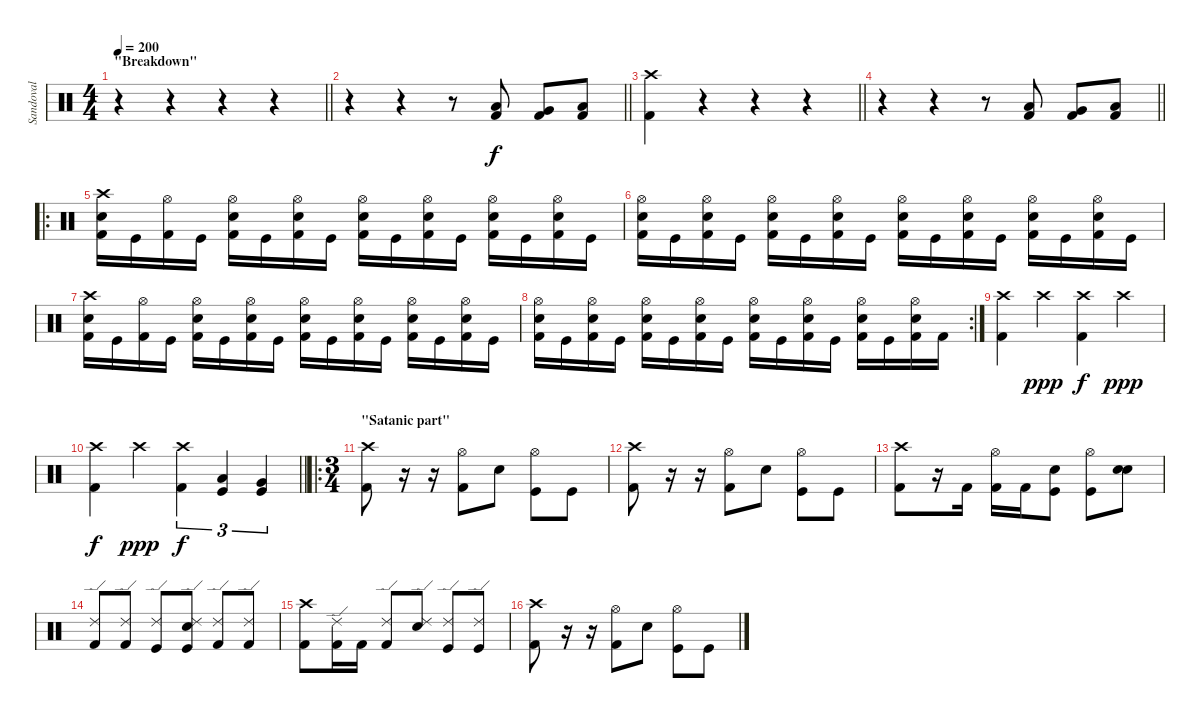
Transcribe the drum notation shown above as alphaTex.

\track ("Sandoval" "Sandoval") {instrument percussion}
\staff {score}
\articulation defaults
\ts (4 4)
\section ("" "\"Breakdown\"")
\tempo 200
\clef neutral
\barLineRight lightlight
\ks c
r.4{dy f} r.4 r.4 r.4 |
\barLineRight lightlight
r.4 r.4 r.8 ("Low Tom (hit)" "Kick (hit) 2").8 ("Very Low Tom (hit)" "Kick (hit) 2").8 ("Low Floor Tom (hit)" "Kick (hit) 2").8 |
\barLineRight lightlight
("Crash high (hit)" "Kick (hit) 2").4 r.4 r.4 r.4 |
\barLineRight lightlight
r.4 r.4 r.8 ("Low Tom (hit)" "Kick (hit) 2").8 ("Very Low Tom (hit)" "Kick (hit) 2").8 ("Low Floor Tom (hit)" "Kick (hit) 2").8 |
\ro
("Crash high (hit)" "Electric Snare (hit)" "Kick (hit) 2").16 "Kick (hit)".16 ("Hi-Hat (open)" "Kick (hit) 2").16 "Kick (hit)".16 ("Hi-Hat (open)" "Electric Snare (hit)" "Kick (hit) 2").16 "Kick (hit)".16 ("Hi-Hat (open)" "Electric Snare (hit)" "Kick (hit) 2").16 "Kick (hit)".16 ("Hi-Hat (open)" "Electric Snare (hit)" "Kick (hit) 2").16 "Kick (hit)".16 ("Hi-Hat (open)" "Electric Snare (hit)" "Kick (hit) 2").16 "Kick (hit)".16 ("Hi-Hat (open)" "Electric Snare (hit)" "Kick (hit) 2").16 "Kick (hit)".16 ("Hi-Hat (open)" "Electric Snare (hit)" "Kick (hit) 2").16 "Kick (hit)".16 |
("Hi-Hat (open)" "Electric Snare (hit)" "Kick (hit) 2").16 "Kick (hit)".16 ("Hi-Hat (open)" "Electric Snare (hit)" "Kick (hit) 2").16 "Kick (hit)".16 ("Hi-Hat (open)" "Electric Snare (hit)" "Kick (hit) 2").16 "Kick (hit)".16 ("Hi-Hat (open)" "Electric Snare (hit)" "Kick (hit) 2").16 "Kick (hit)".16 ("Hi-Hat (open)" "Electric Snare (hit)" "Kick (hit) 2").16 "Kick (hit)".16 ("Hi-Hat (open)" "Electric Snare (hit)" "Kick (hit) 2").16 "Kick (hit)".16 ("Hi-Hat (open)" "Electric Snare (hit)" "Kick (hit) 2").16 "Kick (hit)".16 ("Hi-Hat (open)" "Electric Snare (hit)" "Kick (hit) 2").16 "Kick (hit)".16 |
("Crash high (hit)" "Electric Snare (hit)" "Kick (hit) 2").16 "Kick (hit)".16 ("Hi-Hat (open)" "Kick (hit) 2").16 "Kick (hit)".16 ("Hi-Hat (open)" "Electric Snare (hit)" "Kick (hit) 2").16 "Kick (hit)".16 ("Hi-Hat (open)" "Electric Snare (hit)" "Kick (hit) 2").16 "Kick (hit)".16 ("Hi-Hat (open)" "Electric Snare (hit)" "Kick (hit) 2").16 "Kick (hit)".16 ("Hi-Hat (open)" "Electric Snare (hit)" "Kick (hit) 2").16 "Kick (hit)".16 ("Hi-Hat (open)" "Electric Snare (hit)" "Kick (hit) 2").16 "Kick (hit)".16 ("Hi-Hat (open)" "Electric Snare (hit)" "Kick (hit) 2").16 "Kick (hit)".16 |
\rc 2
("Hi-Hat (open)" "Electric Snare (hit)" "Kick (hit) 2").16 "Kick (hit)".16 ("Hi-Hat (open)" "Electric Snare (hit)" "Kick (hit) 2").16 "Kick (hit)".16 ("Hi-Hat (open)" "Electric Snare (hit)" "Kick (hit) 2").16 "Kick (hit)".16 ("Hi-Hat (open)" "Electric Snare (hit)" "Kick (hit) 2").16 "Kick (hit)".16 ("Hi-Hat (open)" "Electric Snare (hit)" "Kick (hit) 2").16 "Kick (hit)".16 ("Hi-Hat (open)" "Electric Snare (hit)" "Kick (hit) 2").16 "Kick (hit)".16 ("Hi-Hat (open)" "Electric Snare (hit)" "Kick (hit) 2").16 "Kick (hit)".16 ("Hi-Hat (open)" "Electric Snare (hit)" "Kick (hit) 2").16 "Kick (hit) 2".16 |
("Crash high (hit)" "Kick (hit) 2").4 "Crash high (hit)".4{dy ppp} ("Crash high (hit)" "Kick (hit) 2").4{dy f} "Crash high (hit)".4{dy ppp} |
\barLineRight lightlight
("Crash high (hit)" "Kick (hit) 2").4{dy f} "Crash high (hit)".4{dy ppp} ("Crash high (hit)" "Kick (hit) 2").4{tu (3 2) dy f} ("Low Tom (hit)" "Kick (hit)").4{tu (3 2)} ("Very Low Tom (hit)" "Kick (hit)").4{tu (3 2)} |
\ro
\ts (3 4)
\section ("" "\"Satanic part\"")
("Crash high (hit)" "Kick (hit) 2").8 r.16 r.16 ("Hi-Hat (open)" "Kick (hit) 2").8 "Electric Snare (hit)".8 ("Hi-Hat (open)" "Kick (hit)").8 "Kick (hit)".8 |
("Crash high (hit)" "Kick (hit) 2").8 r.16 r.16 ("Hi-Hat (open)" "Kick (hit) 2").8 "Electric Snare (hit)".8 ("Hi-Hat (open)" "Kick (hit)").8 "Kick (hit)".8 |
("Crash high (hit)" "Kick (hit) 2").8 r.16 "Kick (hit) 2".16 ("Hi-Hat (open)" "Kick (hit) 2").16 "Kick (hit) 2".16 ("Electric Snare (hit)" "Kick (hit)").8 ("Hi-Hat (open)" "Kick (hit)").8 ("Electric Snare (hit)" "Snare (hit)").8 |
("Ride (edge) 2" "Kick (hit) 2").8 ("Ride (edge) 2" "Kick (hit) 2").8 ("Ride (edge) 2" "Kick (hit)").8 ("Ride (edge) 2" "Electric Snare (hit)" "Kick (hit)").8 ("Ride (edge) 2" "Kick (hit) 2").8 ("Ride (edge) 2" "Kick (hit) 2").8 |
("Crash high (hit)" "Kick (hit) 2").8 ("Ride (edge) 2" "Kick (hit) 2").16 "Kick (hit) 2".16 ("Ride (edge) 2" "Kick (hit) 2").8 ("Ride (edge) 2" "Electric Snare (hit)").8 ("Ride (edge) 2" "Kick (hit)").8 ("Ride (edge) 2" "Kick (hit)").8 |
("Crash high (hit)" "Kick (hit) 2").8 r.16 r.16 ("Hi-Hat (open)" "Kick (hit) 2").8 "Electric Snare (hit)".8 ("Hi-Hat (open)" "Kick (hit)").8 "Kick (hit)".8
